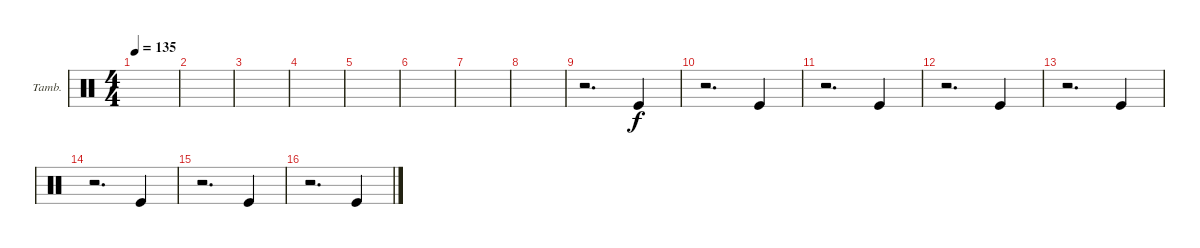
\defaultSystemsLayout 4
\bracketExtendMode groupsimilarinstruments
\firstSystemTrackNameOrientation horizontal
\otherSystemsTrackNameOrientation horizontal
\track ("Tambourine" "Tamb.") {instrument percussion}
\staff {score}
\articulation defaults
\ts (4 4)
\tempo 135
\clef neutral
\scale
0.333333
\ks c
|
\scale
0.333333 |
\scale
0.333333 |
\scale
0.333333 |
\scale
0.333333 |
\scale
0.333333 |
\scale
0.333333 |
\scale
0.333333 |
\scale
0.333333 r.2{d} "Kick (hit)".4 |
\scale
0.333333 r.2{d} "Kick (hit)".4 |
\scale
0.333333 r.2{d} "Kick (hit)".4 |
\scale
0.333333 r.2{d} "Kick (hit)".4 |
\scale
0.333333 r.2{d} "Kick (hit)".4 |
\scale
0.333333 r.2{d} "Kick (hit)".4 |
\scale
0.333333 r.2{d} "Kick (hit)".4 |
\scale
0.333333 r.2{d} "Kick (hit)".4
